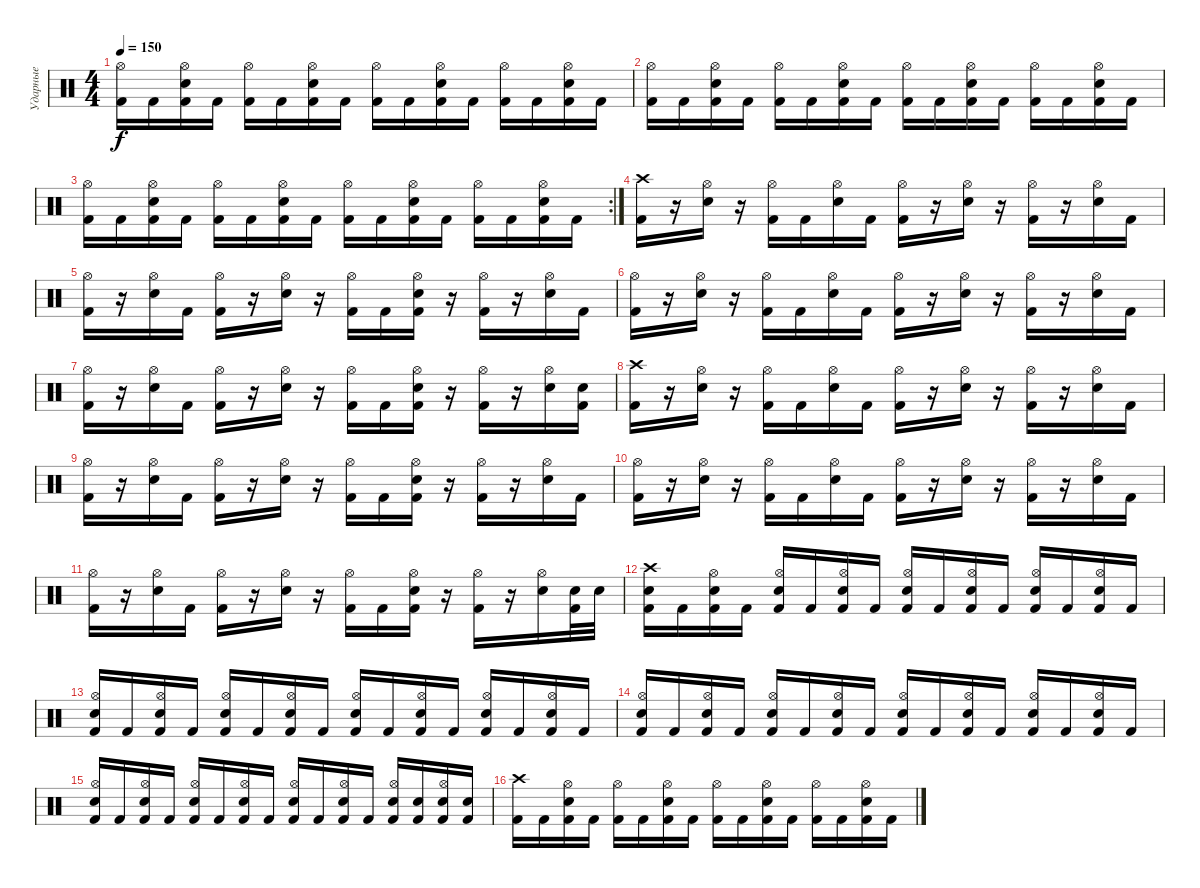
\track ("Ударные" "Ударные") {instrument percussion}
\staff {score}
\articulation defaults
\ts (4 4)
\tempo 150
\clef neutral
\ks c
("Kick (hit) 2" "Hi-Hat (open)").16{dy f} "Kick (hit) 2".16 ("Kick (hit) 2" "Electric Snare (hit)" "Hi-Hat (open)").16 "Kick (hit) 2".16 ("Kick (hit) 2" "Hi-Hat (open)").16 "Kick (hit) 2".16 ("Kick (hit) 2" "Electric Snare (hit)" "Hi-Hat (open)").16 "Kick (hit) 2".16 ("Kick (hit) 2" "Hi-Hat (open)").16 "Kick (hit) 2".16 ("Kick (hit) 2" "Electric Snare (hit)" "Hi-Hat (open)").16 "Kick (hit) 2".16 ("Kick (hit) 2" "Hi-Hat (open)").16 "Kick (hit) 2".16 ("Kick (hit) 2" "Electric Snare (hit)" "Hi-Hat (open)").16 "Kick (hit) 2".16 |
("Kick (hit) 2" "Hi-Hat (open)").16 "Kick (hit) 2".16 ("Kick (hit) 2" "Electric Snare (hit)" "Hi-Hat (open)").16 "Kick (hit) 2".16 ("Kick (hit) 2" "Hi-Hat (open)").16 "Kick (hit) 2".16 ("Kick (hit) 2" "Electric Snare (hit)" "Hi-Hat (open)").16 "Kick (hit) 2".16 ("Kick (hit) 2" "Hi-Hat (open)").16 "Kick (hit) 2".16 ("Kick (hit) 2" "Electric Snare (hit)" "Hi-Hat (open)").16 "Kick (hit) 2".16 ("Kick (hit) 2" "Hi-Hat (open)").16 "Kick (hit) 2".16 ("Kick (hit) 2" "Electric Snare (hit)" "Hi-Hat (open)").16 "Kick (hit) 2".16 |
\rc 2
("Kick (hit) 2" "Hi-Hat (open)").16 "Kick (hit) 2".16 ("Kick (hit) 2" "Electric Snare (hit)" "Hi-Hat (open)").16 "Kick (hit) 2".16 ("Kick (hit) 2" "Hi-Hat (open)").16 "Kick (hit) 2".16 ("Kick (hit) 2" "Electric Snare (hit)" "Hi-Hat (open)").16 "Kick (hit) 2".16 ("Kick (hit) 2" "Hi-Hat (open)").16 "Kick (hit) 2".16 ("Kick (hit) 2" "Electric Snare (hit)" "Hi-Hat (open)").16 "Kick (hit) 2".16 ("Kick (hit) 2" "Hi-Hat (open)").16 "Kick (hit) 2".16 ("Kick (hit) 2" "Electric Snare (hit)" "Hi-Hat (open)").16 "Kick (hit) 2".16 |
("Kick (hit) 2" "Crash high (hit)").16 r.16 ("Electric Snare (hit)" "Hi-Hat (open)").16 r.16 ("Kick (hit) 2" "Hi-Hat (open)").16 "Kick (hit) 2".16 ("Electric Snare (hit)" "Hi-Hat (open)").16 "Kick (hit) 2".16 ("Kick (hit) 2" "Hi-Hat (open)").16 r.16 ("Electric Snare (hit)" "Hi-Hat (open)").16 r.16 ("Kick (hit) 2" "Hi-Hat (open)").16 r.16 ("Electric Snare (hit)" "Hi-Hat (open)").16 "Kick (hit) 2".16 |
("Kick (hit) 2" "Hi-Hat (open)").16 r.16 ("Electric Snare (hit)" "Hi-Hat (open)").16 "Kick (hit) 2".16 ("Kick (hit) 2" "Hi-Hat (open)").16 r.16 ("Electric Snare (hit)" "Hi-Hat (open)").16 r.16 ("Kick (hit) 2" "Hi-Hat (open)").16 "Kick (hit) 2".16 ("Kick (hit) 2" "Electric Snare (hit)" "Hi-Hat (open)").16 r.16 ("Kick (hit) 2" "Hi-Hat (open)").16 r.16 ("Electric Snare (hit)" "Hi-Hat (open)").16 "Kick (hit) 2".16 |
("Kick (hit) 2" "Hi-Hat (open)").16 r.16 ("Electric Snare (hit)" "Hi-Hat (open)").16 r.16 ("Kick (hit) 2" "Hi-Hat (open)").16 "Kick (hit) 2".16 ("Electric Snare (hit)" "Hi-Hat (open)").16 "Kick (hit) 2".16 ("Kick (hit) 2" "Hi-Hat (open)").16 r.16 ("Electric Snare (hit)" "Hi-Hat (open)").16 r.16 ("Kick (hit) 2" "Hi-Hat (open)").16 r.16 ("Electric Snare (hit)" "Hi-Hat (open)").16 "Kick (hit) 2".16 |
("Kick (hit) 2" "Hi-Hat (open)").16 r.16 ("Electric Snare (hit)" "Hi-Hat (open)").16 "Kick (hit) 2".16 ("Kick (hit) 2" "Hi-Hat (open)").16 r.16 ("Electric Snare (hit)" "Hi-Hat (open)").16 r.16 ("Kick (hit) 2" "Hi-Hat (open)").16 "Kick (hit) 2".16 ("Kick (hit) 2" "Electric Snare (hit)" "Hi-Hat (open)").16 r.16 ("Kick (hit) 2" "Hi-Hat (open)").16 r.16 ("Electric Snare (hit)" "Hi-Hat (open)").16 ("Kick (hit) 2" "Electric Snare (hit)").16 |
("Kick (hit) 2" "Crash high (hit)").16 r.16 ("Electric Snare (hit)" "Hi-Hat (open)").16 r.16 ("Kick (hit) 2" "Hi-Hat (open)").16 "Kick (hit) 2".16 ("Electric Snare (hit)" "Hi-Hat (open)").16 "Kick (hit) 2".16 ("Kick (hit) 2" "Hi-Hat (open)").16 r.16 ("Electric Snare (hit)" "Hi-Hat (open)").16 r.16 ("Kick (hit) 2" "Hi-Hat (open)").16 r.16 ("Electric Snare (hit)" "Hi-Hat (open)").16 "Kick (hit) 2".16 |
("Kick (hit) 2" "Hi-Hat (open)").16 r.16 ("Electric Snare (hit)" "Hi-Hat (open)").16 "Kick (hit) 2".16 ("Kick (hit) 2" "Hi-Hat (open)").16 r.16 ("Electric Snare (hit)" "Hi-Hat (open)").16 r.16 ("Kick (hit) 2" "Hi-Hat (open)").16 "Kick (hit) 2".16 ("Kick (hit) 2" "Electric Snare (hit)" "Hi-Hat (open)").16 r.16 ("Kick (hit) 2" "Hi-Hat (open)").16 r.16 ("Electric Snare (hit)" "Hi-Hat (open)").16 "Kick (hit) 2".16 |
("Kick (hit) 2" "Hi-Hat (open)").16 r.16 ("Electric Snare (hit)" "Hi-Hat (open)").16 r.16 ("Kick (hit) 2" "Hi-Hat (open)").16 "Kick (hit) 2".16 ("Electric Snare (hit)" "Hi-Hat (open)").16 "Kick (hit) 2".16 ("Kick (hit) 2" "Hi-Hat (open)").16 r.16 ("Electric Snare (hit)" "Hi-Hat (open)").16 r.16 ("Kick (hit) 2" "Hi-Hat (open)").16 r.16 ("Electric Snare (hit)" "Hi-Hat (open)").16 "Kick (hit) 2".16 |
("Kick (hit) 2" "Hi-Hat (open)").16 r.16 ("Electric Snare (hit)" "Hi-Hat (open)").16 "Kick (hit) 2".16 ("Kick (hit) 2" "Hi-Hat (open)").16 r.16 ("Electric Snare (hit)" "Hi-Hat (open)").16 r.16 ("Kick (hit) 2" "Hi-Hat (open)").16 "Kick (hit) 2".16 ("Kick (hit) 2" "Electric Snare (hit)" "Hi-Hat (open)").16 r.16 ("Kick (hit) 2" "Hi-Hat (open)").16 r.16 ("Electric Snare (hit)" "Hi-Hat (open)").16 ("Kick (hit) 2" "Electric Snare (hit)").32 "Electric Snare (hit)".32 |
("Kick (hit) 2" "Electric Snare (hit)" "Crash high (hit)").16 "Kick (hit) 2".16 ("Kick (hit) 2" "Electric Snare (hit)" "Hi-Hat (open)").16 "Kick (hit) 2".16 ("Kick (hit) 2" "Electric Snare (hit)" "Hi-Hat (open)").16 "Kick (hit) 2".16 ("Kick (hit) 2" "Electric Snare (hit)" "Hi-Hat (open)").16 "Kick (hit) 2".16 ("Kick (hit) 2" "Electric Snare (hit)" "Hi-Hat (open)").16 "Kick (hit) 2".16 ("Kick (hit) 2" "Electric Snare (hit)" "Hi-Hat (open)").16 "Kick (hit) 2".16 ("Kick (hit) 2" "Electric Snare (hit)" "Hi-Hat (open)").16 "Kick (hit) 2".16 ("Kick (hit) 2" "Electric Snare (hit)" "Hi-Hat (open)").16 "Kick (hit) 2".16 |
("Kick (hit) 2" "Electric Snare (hit)" "Hi-Hat (open)").16 "Kick (hit) 2".16 ("Kick (hit) 2" "Electric Snare (hit)" "Hi-Hat (open)").16 "Kick (hit) 2".16 ("Kick (hit) 2" "Electric Snare (hit)" "Hi-Hat (open)").16 "Kick (hit) 2".16 ("Kick (hit) 2" "Electric Snare (hit)" "Hi-Hat (open)").16 "Kick (hit) 2".16 ("Kick (hit) 2" "Electric Snare (hit)" "Hi-Hat (open)").16 "Kick (hit) 2".16 ("Kick (hit) 2" "Electric Snare (hit)" "Hi-Hat (open)").16 "Kick (hit) 2".16 ("Kick (hit) 2" "Electric Snare (hit)" "Hi-Hat (open)").16 "Kick (hit) 2".16 ("Kick (hit) 2" "Electric Snare (hit)" "Hi-Hat (open)").16 "Kick (hit) 2".16 |
("Kick (hit) 2" "Electric Snare (hit)" "Hi-Hat (open)").16 "Kick (hit) 2".16 ("Kick (hit) 2" "Electric Snare (hit)" "Hi-Hat (open)").16 "Kick (hit) 2".16 ("Kick (hit) 2" "Electric Snare (hit)" "Hi-Hat (open)").16 "Kick (hit) 2".16 ("Kick (hit) 2" "Electric Snare (hit)" "Hi-Hat (open)").16 "Kick (hit) 2".16 ("Kick (hit) 2" "Electric Snare (hit)" "Hi-Hat (open)").16 "Kick (hit) 2".16 ("Kick (hit) 2" "Electric Snare (hit)" "Hi-Hat (open)").16 "Kick (hit) 2".16 ("Kick (hit) 2" "Electric Snare (hit)" "Hi-Hat (open)").16 "Kick (hit) 2".16 ("Kick (hit) 2" "Electric Snare (hit)" "Hi-Hat (open)").16 "Kick (hit) 2".16 |
("Kick (hit) 2" "Electric Snare (hit)" "Hi-Hat (open)").16 "Kick (hit) 2".16 ("Kick (hit) 2" "Electric Snare (hit)" "Hi-Hat (open)").16 "Kick (hit) 2".16 ("Kick (hit) 2" "Electric Snare (hit)" "Hi-Hat (open)").16 "Kick (hit) 2".16 ("Kick (hit) 2" "Electric Snare (hit)" "Hi-Hat (open)").16 "Kick (hit) 2".16 ("Kick (hit) 2" "Electric Snare (hit)" "Hi-Hat (open)").16 "Kick (hit) 2".16 ("Kick (hit) 2" "Electric Snare (hit)" "Hi-Hat (open)").16 "Kick (hit) 2".16 ("Kick (hit) 2" "Electric Snare (hit)" "Hi-Hat (open)").16 ("Kick (hit) 2" "Electric Snare (hit)").16 ("Kick (hit) 2" "Electric Snare (hit)" "Hi-Hat (open)").16 ("Kick (hit) 2" "Electric Snare (hit)").16 |
("Kick (hit) 2" "Crash high (hit)").16 "Kick (hit) 2".16 ("Kick (hit) 2" "Electric Snare (hit)" "Hi-Hat (open)").16 "Kick (hit) 2".16 ("Kick (hit) 2" "Hi-Hat (open)").16 "Kick (hit) 2".16 ("Kick (hit) 2" "Electric Snare (hit)" "Hi-Hat (open)").16 "Kick (hit) 2".16 ("Kick (hit) 2" "Hi-Hat (open)").16 "Kick (hit) 2".16 ("Kick (hit) 2" "Electric Snare (hit)" "Hi-Hat (open)").16 "Kick (hit) 2".16 ("Kick (hit) 2" "Hi-Hat (open)").16 "Kick (hit) 2".16 ("Kick (hit) 2" "Electric Snare (hit)" "Hi-Hat (open)").16 "Kick (hit) 2".16
